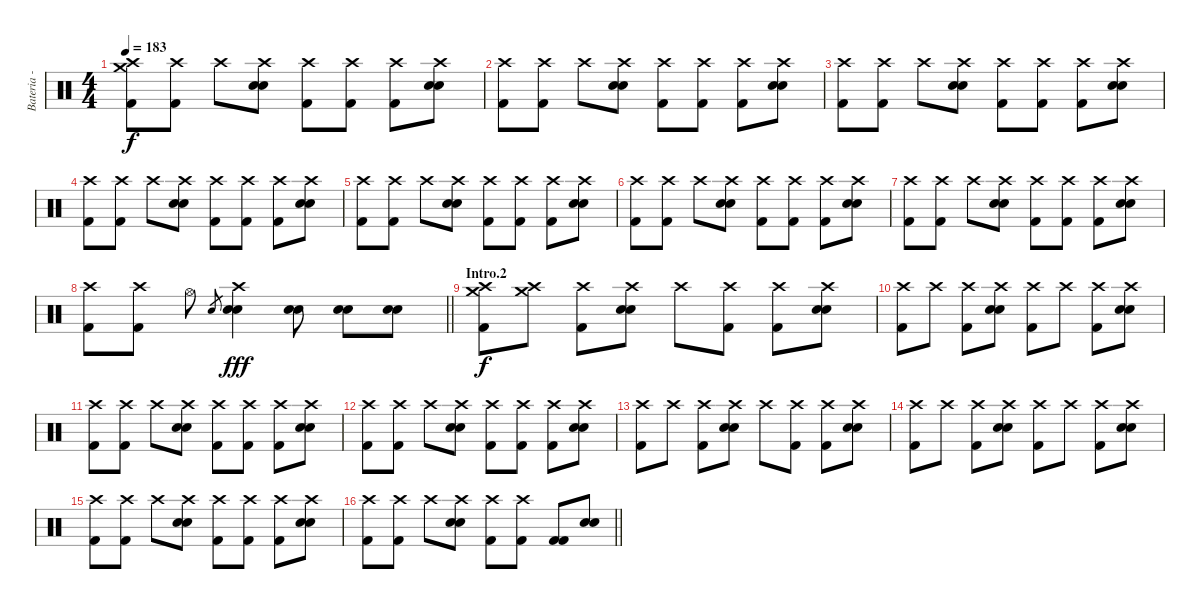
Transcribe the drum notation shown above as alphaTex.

\track ("Bateria - Larzon " "Bateria - ") {instrument percussion}
\staff {score}
\articulation defaults
\ts (4 4)
\tempo 183
\clef neutral
\ks c
("Kick (hit) 2" "Crash medium (hit)" "Crash high (hit)").8{dy f} ("Kick (hit) 2" "Crash high (hit)").8 "Crash high (hit)".8 ("Snare (hit) 2" "Snare (hit) 2" "Crash high (hit)").8 ("Kick (hit) 2" "Crash high (hit)").8 ("Kick (hit) 2" "Crash high (hit)").8 ("Kick (hit) 2" "Crash high (hit)").8 ("Snare (hit) 2" "Snare (hit) 2" "Crash high (hit)").8 |
("Kick (hit) 2" "Crash high (hit)").8 ("Kick (hit) 2" "Crash high (hit)").8 "Crash high (hit)".8 ("Snare (hit) 2" "Snare (hit) 2" "Crash high (hit)").8 ("Kick (hit) 2" "Crash high (hit)").8 ("Kick (hit) 2" "Crash high (hit)").8 ("Kick (hit) 2" "Crash high (hit)").8 ("Snare (hit) 2" "Snare (hit) 2" "Crash high (hit)").8 |
("Kick (hit) 2" "Crash high (hit)").8 ("Kick (hit) 2" "Crash high (hit)").8 "Crash high (hit)".8 ("Snare (hit) 2" "Snare (hit) 2" "Crash high (hit)").8 ("Kick (hit) 2" "Crash high (hit)").8 ("Kick (hit) 2" "Crash high (hit)").8 ("Kick (hit) 2" "Crash high (hit)").8 ("Snare (hit) 2" "Snare (hit) 2" "Crash high (hit)").8 |
("Kick (hit) 2" "Crash high (hit)").8 ("Kick (hit) 2" "Crash high (hit)").8 "Crash high (hit)".8 ("Snare (hit) 2" "Snare (hit) 2" "Crash high (hit)").8 ("Kick (hit) 2" "Crash high (hit)").8 ("Kick (hit) 2" "Crash high (hit)").8 ("Kick (hit) 2" "Crash high (hit)").8 ("Snare (hit) 2" "Snare (hit) 2" "Crash high (hit)").8 |
("Kick (hit) 2" "Crash high (hit)").8 ("Kick (hit) 2" "Crash high (hit)").8 "Crash high (hit)".8 ("Snare (hit) 2" "Snare (hit) 2" "Crash high (hit)").8 ("Kick (hit) 2" "Crash high (hit)").8 ("Kick (hit) 2" "Crash high (hit)").8 ("Kick (hit) 2" "Crash high (hit)").8 ("Snare (hit) 2" "Snare (hit) 2" "Crash high (hit)").8 |
("Kick (hit) 2" "Crash high (hit)").8 ("Kick (hit) 2" "Crash high (hit)").8 "Crash high (hit)".8 ("Snare (hit) 2" "Snare (hit) 2" "Crash high (hit)").8 ("Kick (hit) 2" "Crash high (hit)").8 ("Kick (hit) 2" "Crash high (hit)").8 ("Kick (hit) 2" "Crash high (hit)").8 ("Snare (hit) 2" "Snare (hit) 2" "Crash high (hit)").8 |
("Kick (hit) 2" "Crash high (hit)").8 ("Kick (hit) 2" "Crash high (hit)").8 "Crash high (hit)".8 ("Snare (hit) 2" "Snare (hit) 2" "Crash high (hit)").8 ("Kick (hit) 2" "Crash high (hit)").8 ("Kick (hit) 2" "Crash high (hit)").8 ("Kick (hit) 2" "Crash high (hit)").8 ("Snare (hit) 2" "Snare (hit) 2" "Crash high (hit)").8 |
\barLineRight lightlight
("Kick (hit) 2" "Crash high (hit)").8 ("Kick (hit) 2" "Crash high (hit)").8 "Hi-Hat (open)".8 "Snare (hit) 2".8{gr} ("Snare (hit) 2" "Snare (hit) 2" "Crash high (hit)").4{dy fff} ("Snare (hit) 2" "Snare (hit) 2").8 ("Snare (hit) 2" "Snare (hit) 2").8 ("Snare (hit) 2" "Snare (hit) 2").8 |
\section ("" "Intro.2")
("Kick (hit) 2" "Crash medium (hit)" "Crash high (hit)").8{dy f} ("Crash medium (hit)" "Crash high (hit)").8 ("Kick (hit) 2" "Crash high (hit)").8 ("Snare (hit) 2" "Snare (hit) 2" "Crash high (hit)").8 "Crash high (hit)".8 ("Kick (hit) 2" "Crash high (hit)").8 ("Kick (hit) 2" "Crash high (hit)").8 ("Snare (hit) 2" "Snare (hit) 2" "Crash high (hit)").8 |
("Kick (hit) 2" "Crash high (hit)").8 "Crash high (hit)".8 ("Kick (hit) 2" "Crash high (hit)").8 ("Snare (hit) 2" "Snare (hit) 2" "Crash high (hit)").8 ("Kick (hit) 2" "Crash high (hit)").8 "Crash high (hit)".8 ("Kick (hit) 2" "Crash high (hit)").8 ("Snare (hit) 2" "Snare (hit) 2" "Crash high (hit)").8 |
("Kick (hit) 2" "Crash high (hit)").8 ("Kick (hit) 2" "Crash high (hit)").8 "Crash high (hit)".8 ("Snare (hit) 2" "Snare (hit) 2" "Crash high (hit)").8 ("Kick (hit) 2" "Crash high (hit)").8 ("Kick (hit) 2" "Crash high (hit)").8 ("Kick (hit) 2" "Crash high (hit)").8 ("Snare (hit) 2" "Snare (hit) 2" "Crash high (hit)").8 |
("Kick (hit) 2" "Crash high (hit)").8 ("Kick (hit) 2" "Crash high (hit)").8 "Crash high (hit)".8 ("Snare (hit) 2" "Snare (hit) 2" "Crash high (hit)").8 ("Kick (hit) 2" "Crash high (hit)").8 ("Kick (hit) 2" "Crash high (hit)").8 ("Kick (hit) 2" "Crash high (hit)").8 ("Snare (hit) 2" "Snare (hit) 2" "Crash high (hit)").8 |
("Kick (hit) 2" "Crash high (hit)").8 "Crash high (hit)".8 ("Kick (hit) 2" "Crash high (hit)").8 ("Snare (hit) 2" "Snare (hit) 2" "Crash high (hit)").8 "Crash high (hit)".8 ("Kick (hit) 2" "Crash high (hit)").8 ("Kick (hit) 2" "Crash high (hit)").8 ("Snare (hit) 2" "Snare (hit) 2" "Crash high (hit)").8 |
("Kick (hit) 2" "Crash high (hit)").8 "Crash high (hit)".8 ("Kick (hit) 2" "Crash high (hit)").8 ("Snare (hit) 2" "Snare (hit) 2" "Crash high (hit)").8 ("Kick (hit) 2" "Crash high (hit)").8 "Crash high (hit)".8 ("Kick (hit) 2" "Crash high (hit)").8 ("Snare (hit) 2" "Snare (hit) 2" "Crash high (hit)").8 |
("Kick (hit) 2" "Crash high (hit)").8 ("Kick (hit) 2" "Crash high (hit)").8 "Crash high (hit)".8 ("Snare (hit) 2" "Snare (hit) 2" "Crash high (hit)").8 ("Kick (hit) 2" "Crash high (hit)").8 ("Kick (hit) 2" "Crash high (hit)").8 ("Kick (hit) 2" "Crash high (hit)").8 ("Snare (hit) 2" "Snare (hit) 2" "Crash high (hit)").8 |
\barLineRight lightlight
("Kick (hit) 2" "Crash high (hit)").8 ("Kick (hit) 2" "Crash high (hit)").8 "Crash high (hit)".8 ("Snare (hit) 2" "Snare (hit) 2" "Crash high (hit)").8 ("Kick (hit) 2" "Crash high (hit)").8 ("Kick (hit) 2" "Crash high (hit)").8 ("Kick (hit) 2" "Kick (hit) 2").8 ("Snare (hit) 2" "Snare (hit) 2").8
